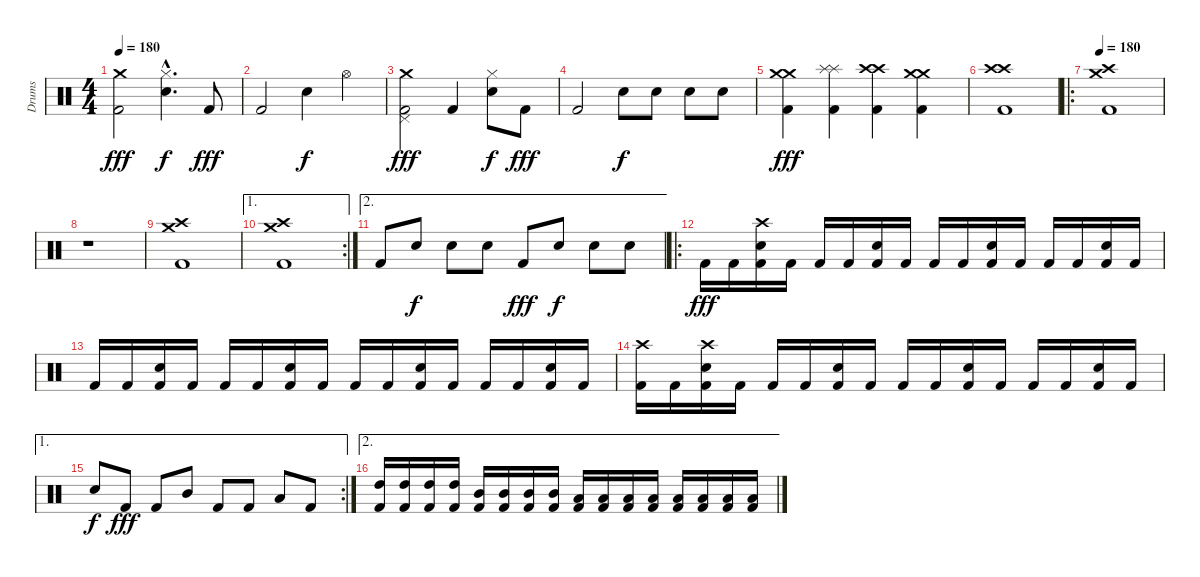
\track ("Drums" "Drums") {instrument percussion}
\staff {score}
\articulation defaults
\ts (4 4)
\tempo 180
\clef neutral
\ks c
("Crash medium (hit)" "Kick (hit) 2").2{dy fff volume 14} ("Hi-Hat (closed)"{hac} "Snare (hit) 2"{hac}).4{d dy f} "Kick (hit) 2".8{dy fff} |
"Kick (hit) 2".2 "Snare (hit) 2".4{dy f} "Hi-Hat (open)".4 |
("Crash medium (hit)" "Pedal Hi-Hat (hit)" "Kick (hit) 2").2{dy fff} "Kick (hit) 2".4 ("Hi-Hat (closed)" "Snare (hit) 2").8{dy f} "Kick (hit) 2".8{dy fff} |
"Kick (hit) 2".2 "Snare (hit) 2".8{dy f} "Snare (hit) 2".8 "Snare (hit) 2".8 "Snare (hit) 2".8 |
("Crash medium (hit)" "Crash medium (hit)" "Kick (hit) 2").4{dy fff} ("Splash (hit)" "Splash (hit)" "Kick (hit) 2").4 ("Crash high (hit)" "Crash high (hit)" "Kick (hit) 2").4 ("Crash medium (hit)" "Crash medium (hit)" "Kick (hit) 2").4 |
("Crash high (hit)" "Crash high (hit)" "Kick (hit) 2").1 |
\ro
\tempo 180
("Crash medium (hit)" "Crash high (hit)" "Kick (hit) 2").1 |
r.1 |
("Crash medium (hit)" "Crash high (hit)" "Kick (hit) 2").1 |
\ae 1
\rc 2
("Crash medium (hit)" "Crash high (hit)" "Kick (hit) 2").1 |
\ae 2 "Kick (hit) 2".8 "Snare (hit) 2".8{dy f} "Snare (hit) 2".8 "Snare (hit) 2".8 "Kick (hit) 2".8{dy fff} "Snare (hit) 2".8{dy f} "Snare (hit) 2".8 "Snare (hit) 2".8
|
\ro "Kick (hit) 2".16{dy fff} "Kick (hit) 2".16
("Crash high (hit)" "Snare (hit) 2" "Kick (hit) 2").16 "Kick (hit) 2".16 "Kick (hit) 2".16 "Kick (hit) 2".16 ("Snare (hit) 2" "Kick (hit) 2").16 "Kick (hit) 2".16 "Kick (hit) 2".16 "Kick (hit) 2".16 ("Snare (hit) 2" "Kick (hit) 2").16 "Kick (hit) 2".16 "Kick (hit) 2".16 "Kick (hit) 2".16 ("Snare (hit) 2" "Kick (hit) 2").16 "Kick (hit) 2".16 |
"Kick (hit) 2".16 "Kick (hit) 2".16 ("Snare (hit) 2" "Kick (hit) 2").16 "Kick (hit) 2".16 "Kick (hit) 2".16 "Kick (hit) 2".16 ("Snare (hit) 2" "Kick (hit) 2").16 "Kick (hit) 2".16 "Kick (hit) 2".16 "Kick (hit) 2".16 ("Snare (hit) 2" "Kick (hit) 2").16 "Kick (hit) 2".16 "Kick (hit) 2".16 "Kick (hit) 2".16 ("Snare (hit) 2" "Kick (hit) 2").16 "Kick (hit) 2".16 |
("Crash high (hit)" "Kick (hit) 2").16 "Kick (hit) 2".16 ("Crash high (hit)" "Snare (hit) 2" "Kick (hit) 2").16 "Kick (hit) 2".16 "Kick (hit) 2".16 "Kick (hit) 2".16 ("Snare (hit) 2" "Kick (hit) 2").16 "Kick (hit) 2".16 "Kick (hit) 2".16 "Kick (hit) 2".16 ("Snare (hit) 2" "Kick (hit) 2").16 "Kick (hit) 2".16 "Kick (hit) 2".16 "Kick (hit) 2".16 ("Snare (hit) 2" "Kick (hit) 2").16 "Kick (hit) 2".16 |
\ae 1
\rc 2 "Snare (hit) 2".8{dy f} "Kick (hit) 2".8{dy fff} "Kick (hit) 2".8 "Mid Tom (hit)".8 "Kick (hit) 2".8 "Kick (hit) 2".8 "Low Tom (hit)".8 "Kick (hit) 2".8
|
\ae 2
("High Tom (hit)" "Kick (hit) 2").16 ("High Tom (hit)" "Kick (hit) 2").16 ("High Tom (hit)" "Kick (hit) 2").16 ("High Tom (hit)" "Kick (hit) 2").16 ("Mid Tom (hit)" "Kick (hit) 2").16 ("Mid Tom (hit)" "Kick (hit) 2").16 ("Mid Tom (hit)" "Kick (hit) 2").16 ("Mid Tom (hit)" "Kick (hit) 2").16 ("Low Tom (hit)" "Kick (hit) 2").16 ("Low Tom (hit)" "Kick (hit) 2").16 ("Low Tom (hit)" "Kick (hit) 2").16 ("Low Tom (hit)" "Kick (hit) 2").16 ("Low Floor Tom (hit)" "Kick (hit) 2").16 ("Low Floor Tom (hit)" "Kick (hit) 2").16 ("Low Floor Tom (hit)" "Kick (hit) 2").16 ("Low Floor Tom (hit)" "Kick (hit) 2").16
